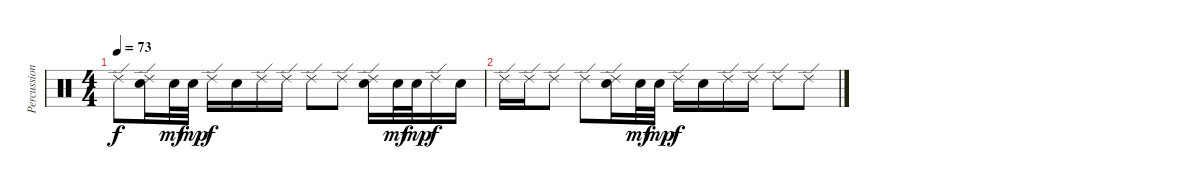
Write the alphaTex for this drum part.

\track ("Percussion" "Percussion") {instrument percussion}
\staff {score}
\articulation defaults
\ts (4 4)
\tempo 73
\clef neutral
\ks c "Ride (edge) 2".8{dy f}
("Ride (edge) 2" "Electric Snare (hit)").16 "Electric Snare (hit)".32{dy mf} "Electric Snare (hit)".32{dy mp} "Ride (edge) 2".16{dy f} "Electric Snare (hit)".16 "Ride (edge) 2".16 "Ride (edge) 2".16 "Ride (edge) 2".8 "Ride (edge) 2".8 ("Ride (edge) 2" "Electric Snare (hit)").16 "Electric Snare (hit)".32{dy mf} "Electric Snare (hit)".32{dy mp} "Ride (edge) 2".16{dy f} "Electric Snare (hit)".16 |
"Ride (edge) 2".16 "Ride (edge) 2".16 "Ride (edge) 2".8 "Ride (edge) 2".8 ("Ride (edge) 2" "Electric Snare (hit)").16 "Electric Snare (hit)".32{dy mf} "Electric Snare (hit)".32{dy mp} "Ride (edge) 2".16{dy f} "Electric Snare (hit)".16 "Ride (edge) 2".16 "Ride (edge) 2".16 "Ride (edge) 2".8 "Ride (edge) 2".8
